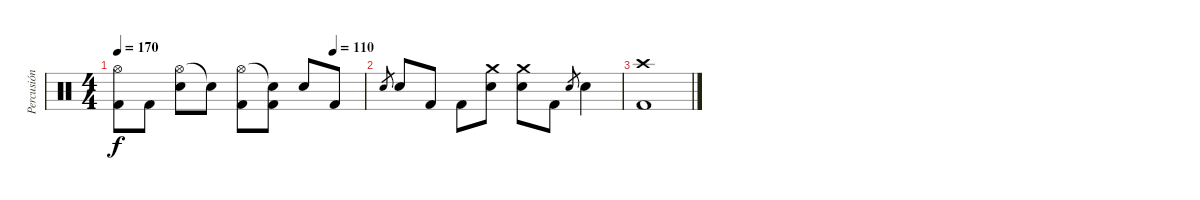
\track ("Percusión" "Percusión") {instrument percussion}
\staff {score}
\articulation defaults
\ts (4 4)
\tempo 170
\tempo (110 0.875)
\clef neutral
\ks c
("Hi-Hat (open)" "Kick (hit) 2").8{dy f} "Kick (hit) 2".8 ("Hi-Hat (open)" "Snare (hit) 2").8 "Snare (hit)"{t}.8 ("Hi-Hat (open)" "Kick (hit) 2").8 ("Snare (hit)"{t} "Kick (hit) 2").8 "Snare (hit) 2".8 "Kick (hit) 2".8 |
"Snare (hit) 2".8{gr} "Snare (hit) 2".8 "Kick (hit) 2".8 "Kick (hit) 2".8 ("Crash medium (hit)" "Snare (hit) 2").8 ("Crash medium (hit)" "Snare (hit) 2").8 "Kick (hit) 2".8 "Snare (hit) 2".8{gr} "Snare (hit) 2".4 |
("Crash high (hit)" "Kick (hit) 2").1
